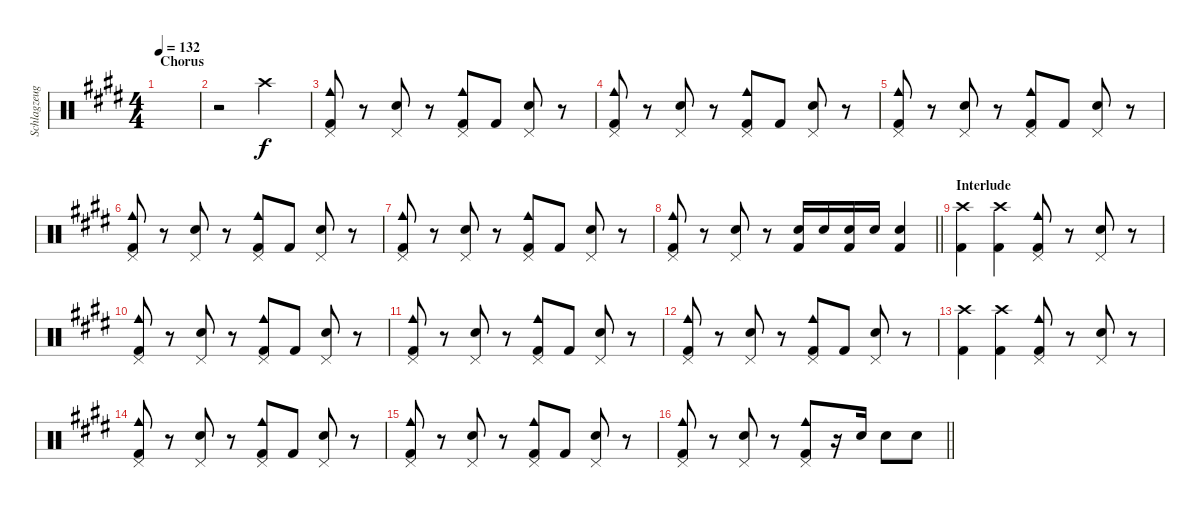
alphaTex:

\track ("Schlagzeug" "Schlagzeug") {instrument percussion}
\staff {score}
\articulation defaults
\ts (4 4)
\section ("" "Chorus")
\tempo 132
\clef neutral
\ks e
|
r.2 "Crash high (hit)".2 |
("Pedal Hi-Hat (hit)" "Kick (hit) 2" "Cowbell medium (hit)").8 r.8 ("Pedal Hi-Hat (hit)" "Snare (hit) 2").8 r.8 ("Pedal Hi-Hat (hit)" "Kick (hit) 2" "Cowbell medium (hit)").8 "Kick (hit) 2".8 ("Pedal Hi-Hat (hit)" "Snare (hit) 2").8 r.8 |
("Pedal Hi-Hat (hit)" "Kick (hit) 2" "Cowbell medium (hit)").8 r.8 ("Pedal Hi-Hat (hit)" "Snare (hit) 2").8 r.8 ("Pedal Hi-Hat (hit)" "Kick (hit) 2" "Cowbell medium (hit)").8 "Kick (hit) 2".8 ("Pedal Hi-Hat (hit)" "Snare (hit) 2").8 r.8 |
("Pedal Hi-Hat (hit)" "Kick (hit) 2" "Cowbell medium (hit)").8 r.8 ("Pedal Hi-Hat (hit)" "Snare (hit) 2").8 r.8 ("Pedal Hi-Hat (hit)" "Kick (hit) 2" "Cowbell medium (hit)").8 "Kick (hit) 2".8 ("Pedal Hi-Hat (hit)" "Snare (hit) 2").8 r.8 |
("Pedal Hi-Hat (hit)" "Kick (hit) 2" "Cowbell medium (hit)").8 r.8 ("Pedal Hi-Hat (hit)" "Snare (hit) 2").8 r.8 ("Pedal Hi-Hat (hit)" "Kick (hit) 2" "Cowbell medium (hit)").8 "Kick (hit) 2".8 ("Pedal Hi-Hat (hit)" "Snare (hit) 2").8 r.8 |
("Pedal Hi-Hat (hit)" "Kick (hit) 2" "Cowbell medium (hit)").8 r.8 ("Pedal Hi-Hat (hit)" "Snare (hit) 2").8 r.8 ("Pedal Hi-Hat (hit)" "Kick (hit) 2" "Cowbell medium (hit)").8 "Kick (hit) 2".8 ("Pedal Hi-Hat (hit)" "Snare (hit) 2").8 r.8 |
\barLineRight lightlight
("Pedal Hi-Hat (hit)" "Kick (hit) 2" "Cowbell medium (hit)").8 r.8 ("Pedal Hi-Hat (hit)" "Snare (hit) 2").8 r.8 ("Snare (hit) 2" "Kick (hit) 2").16 "Snare (hit) 2".16 ("Snare (hit) 2" "Kick (hit) 2").16 "Snare (hit) 2".16 ("Snare (hit) 2" "Kick (hit) 2").4 |
\section ("" "Interlude")
("Crash high (hit)" "Kick (hit) 2").4 ("Crash high (hit)" "Kick (hit) 2").4 ("Pedal Hi-Hat (hit)" "Kick (hit) 2" "Cowbell medium (hit)").8 r.8 ("Pedal Hi-Hat (hit)" "Snare (hit) 2").8 r.8 |
("Pedal Hi-Hat (hit)" "Kick (hit) 2" "Cowbell medium (hit)").8 r.8 ("Pedal Hi-Hat (hit)" "Snare (hit) 2").8 r.8 ("Pedal Hi-Hat (hit)" "Kick (hit) 2" "Cowbell medium (hit)").8 "Kick (hit) 2".8 ("Pedal Hi-Hat (hit)" "Snare (hit) 2").8 r.8 |
("Pedal Hi-Hat (hit)" "Kick (hit) 2" "Cowbell medium (hit)").8 r.8 ("Pedal Hi-Hat (hit)" "Snare (hit) 2").8 r.8 ("Pedal Hi-Hat (hit)" "Kick (hit) 2" "Cowbell medium (hit)").8 "Kick (hit) 2".8 ("Pedal Hi-Hat (hit)" "Snare (hit) 2").8 r.8 |
("Pedal Hi-Hat (hit)" "Kick (hit) 2" "Cowbell medium (hit)").8 r.8 ("Pedal Hi-Hat (hit)" "Snare (hit) 2").8 r.8 ("Pedal Hi-Hat (hit)" "Kick (hit) 2" "Cowbell medium (hit)").8 "Kick (hit) 2".8 ("Pedal Hi-Hat (hit)" "Snare (hit) 2").8 r.8 |
("Crash high (hit)" "Kick (hit) 2").4 ("Crash high (hit)" "Kick (hit) 2").4 ("Pedal Hi-Hat (hit)" "Kick (hit) 2" "Cowbell medium (hit)").8 r.8 ("Pedal Hi-Hat (hit)" "Snare (hit) 2").8 r.8 |
("Pedal Hi-Hat (hit)" "Kick (hit) 2" "Cowbell medium (hit)").8 r.8 ("Pedal Hi-Hat (hit)" "Snare (hit) 2").8 r.8 ("Pedal Hi-Hat (hit)" "Kick (hit) 2" "Cowbell medium (hit)").8 "Kick (hit) 2".8 ("Pedal Hi-Hat (hit)" "Snare (hit) 2").8 r.8 |
("Pedal Hi-Hat (hit)" "Kick (hit) 2" "Cowbell medium (hit)").8 r.8 ("Pedal Hi-Hat (hit)" "Snare (hit) 2").8 r.8 ("Pedal Hi-Hat (hit)" "Kick (hit) 2" "Cowbell medium (hit)").8 "Kick (hit) 2".8 ("Pedal Hi-Hat (hit)" "Snare (hit) 2").8 r.8 |
\barLineRight lightlight
("Pedal Hi-Hat (hit)" "Kick (hit) 2" "Cowbell medium (hit)").8 r.8 ("Pedal Hi-Hat (hit)" "Snare (hit) 2").8 r.8 ("Pedal Hi-Hat (hit)" "Kick (hit) 2" "Cowbell medium (hit)").8 r.16 "Snare (hit) 2".16 "Snare (hit) 2".8 "Snare (hit) 2".8
